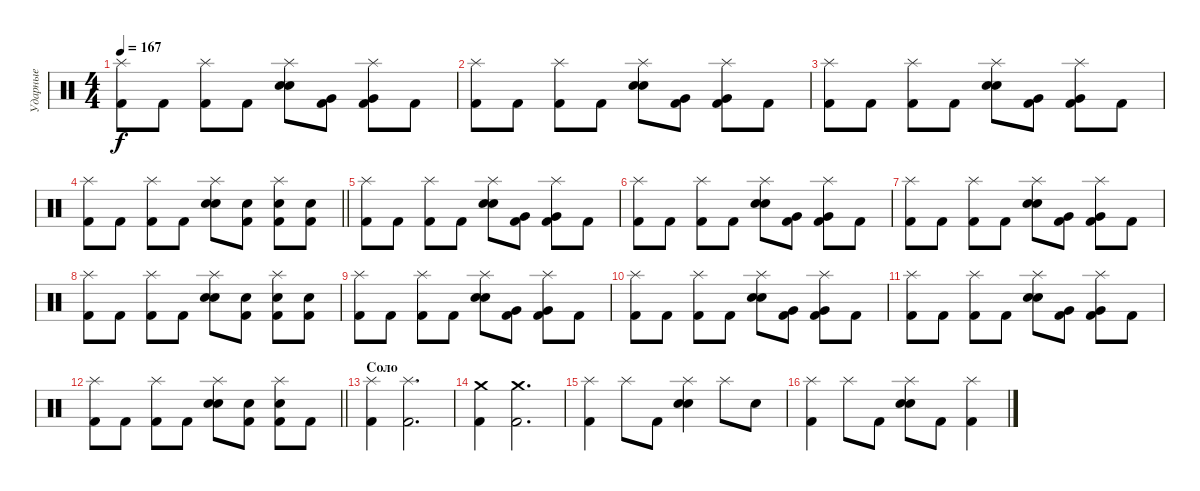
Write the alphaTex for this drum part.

\track ("Ударные" "Ударные") {instrument percussion}
\staff {score}
\articulation defaults
\ts (4 4)
\tempo 167
\clef neutral
\ks c
("Splash (hit)" "Kick (hit) 2").8{dy f} "Kick (hit) 2".8 ("Splash (hit)" "Kick (hit) 2").8 "Kick (hit) 2".8 ("Splash (hit)" "Electric Snare (hit)" "Snare (hit) 2").8 ("Very Low Tom (hit)" "Kick (hit) 2").8 ("Splash (hit)" "Very Low Tom (hit)" "Kick (hit) 2").8 "Kick (hit) 2".8 |
("Splash (hit)" "Kick (hit) 2").8 "Kick (hit) 2".8 ("Splash (hit)" "Kick (hit) 2").8 "Kick (hit) 2".8 ("Splash (hit)" "Electric Snare (hit)" "Snare (hit) 2").8 ("Very Low Tom (hit)" "Kick (hit) 2").8 ("Splash (hit)" "Very Low Tom (hit)" "Kick (hit) 2").8 "Kick (hit) 2".8 |
("Splash (hit)" "Kick (hit) 2").8 "Kick (hit) 2".8 ("Splash (hit)" "Kick (hit) 2").8 "Kick (hit) 2".8 ("Splash (hit)" "Electric Snare (hit)" "Snare (hit) 2").8 ("Very Low Tom (hit)" "Kick (hit) 2").8 ("Splash (hit)" "Very Low Tom (hit)" "Kick (hit) 2").8 "Kick (hit) 2".8 |
\barLineRight lightlight
("Splash (hit)" "Kick (hit) 2").8 "Kick (hit) 2".8 ("Splash (hit)" "Kick (hit) 2").8 "Kick (hit) 2".8 ("Splash (hit)" "Electric Snare (hit)" "Snare (hit) 2").8 ("Electric Snare (hit)" "Kick (hit) 2").8 ("Splash (hit)" "Electric Snare (hit)" "Kick (hit) 2").8 ("Electric Snare (hit)" "Kick (hit) 2").8 |
("Splash (hit)" "Kick (hit) 2").8 "Kick (hit) 2".8 ("Splash (hit)" "Kick (hit) 2").8 "Kick (hit) 2".8 ("Splash (hit)" "Electric Snare (hit)" "Snare (hit) 2").8 ("Very Low Tom (hit)" "Kick (hit) 2").8 ("Splash (hit)" "Very Low Tom (hit)" "Kick (hit) 2").8 "Kick (hit) 2".8 |
("Splash (hit)" "Kick (hit) 2").8 "Kick (hit) 2".8 ("Splash (hit)" "Kick (hit) 2").8 "Kick (hit) 2".8 ("Splash (hit)" "Electric Snare (hit)" "Snare (hit) 2").8 ("Very Low Tom (hit)" "Kick (hit) 2").8 ("Splash (hit)" "Very Low Tom (hit)" "Kick (hit) 2").8 "Kick (hit) 2".8 |
("Splash (hit)" "Kick (hit) 2").8 "Kick (hit) 2".8 ("Splash (hit)" "Kick (hit) 2").8 "Kick (hit) 2".8 ("Splash (hit)" "Electric Snare (hit)" "Snare (hit) 2").8 ("Very Low Tom (hit)" "Kick (hit) 2").8 ("Splash (hit)" "Very Low Tom (hit)" "Kick (hit) 2").8 "Kick (hit) 2".8 |
("Splash (hit)" "Kick (hit) 2").8 "Kick (hit) 2".8 ("Splash (hit)" "Kick (hit) 2").8 "Kick (hit) 2".8 ("Splash (hit)" "Electric Snare (hit)" "Snare (hit) 2").8 ("Electric Snare (hit)" "Kick (hit) 2").8 ("Splash (hit)" "Electric Snare (hit)" "Kick (hit) 2").8 ("Electric Snare (hit)" "Kick (hit) 2").8 |
("Splash (hit)" "Kick (hit) 2").8 "Kick (hit) 2".8 ("Splash (hit)" "Kick (hit) 2").8 "Kick (hit) 2".8 ("Splash (hit)" "Electric Snare (hit)" "Snare (hit) 2").8 ("Very Low Tom (hit)" "Kick (hit) 2").8 ("Splash (hit)" "Very Low Tom (hit)" "Kick (hit) 2").8 "Kick (hit) 2".8 |
("Splash (hit)" "Kick (hit) 2").8 "Kick (hit) 2".8 ("Splash (hit)" "Kick (hit) 2").8 "Kick (hit) 2".8 ("Splash (hit)" "Electric Snare (hit)" "Snare (hit) 2").8 ("Very Low Tom (hit)" "Kick (hit) 2").8 ("Splash (hit)" "Very Low Tom (hit)" "Kick (hit) 2").8 "Kick (hit) 2".8 |
("Splash (hit)" "Kick (hit) 2").8 "Kick (hit) 2".8 ("Splash (hit)" "Kick (hit) 2").8 "Kick (hit) 2".8 ("Splash (hit)" "Electric Snare (hit)" "Snare (hit) 2").8 ("Very Low Tom (hit)" "Kick (hit) 2").8 ("Splash (hit)" "Very Low Tom (hit)" "Kick (hit) 2").8 "Kick (hit) 2".8 |
\barLineRight lightlight
("Splash (hit)" "Kick (hit) 2").8 "Kick (hit) 2".8 ("Splash (hit)" "Kick (hit) 2").8 "Kick (hit) 2".8 ("Splash (hit)" "Electric Snare (hit)" "Snare (hit) 2").8 ("Electric Snare (hit)" "Kick (hit) 2").8 ("Splash (hit)" "Electric Snare (hit)" "Kick (hit) 2").8 "Kick (hit) 2".8 |
\section ("" "Соло")
("Splash (hit)" "Kick (hit) 2").4 ("Splash (hit)" "Kick (hit) 2").2{d} |
("Crash medium (hit)" "Kick (hit) 2").4 ("Crash medium (hit)" "Kick (hit) 2").2{d} |
("Splash (hit)" "Kick (hit) 2").4 "Splash (hit)".8 "Kick (hit) 2".8 ("Splash (hit)" "Electric Snare (hit)" "Snare (hit) 2").4 "Splash (hit)".8 "Electric Snare (hit)".8 |
("Splash (hit)" "Kick (hit) 2").4 "Splash (hit)".8 "Kick (hit) 2".8 ("Splash (hit)" "Electric Snare (hit)" "Snare (hit) 2").8 "Kick (hit) 2".8 ("Splash (hit)" "Kick (hit) 2").4
